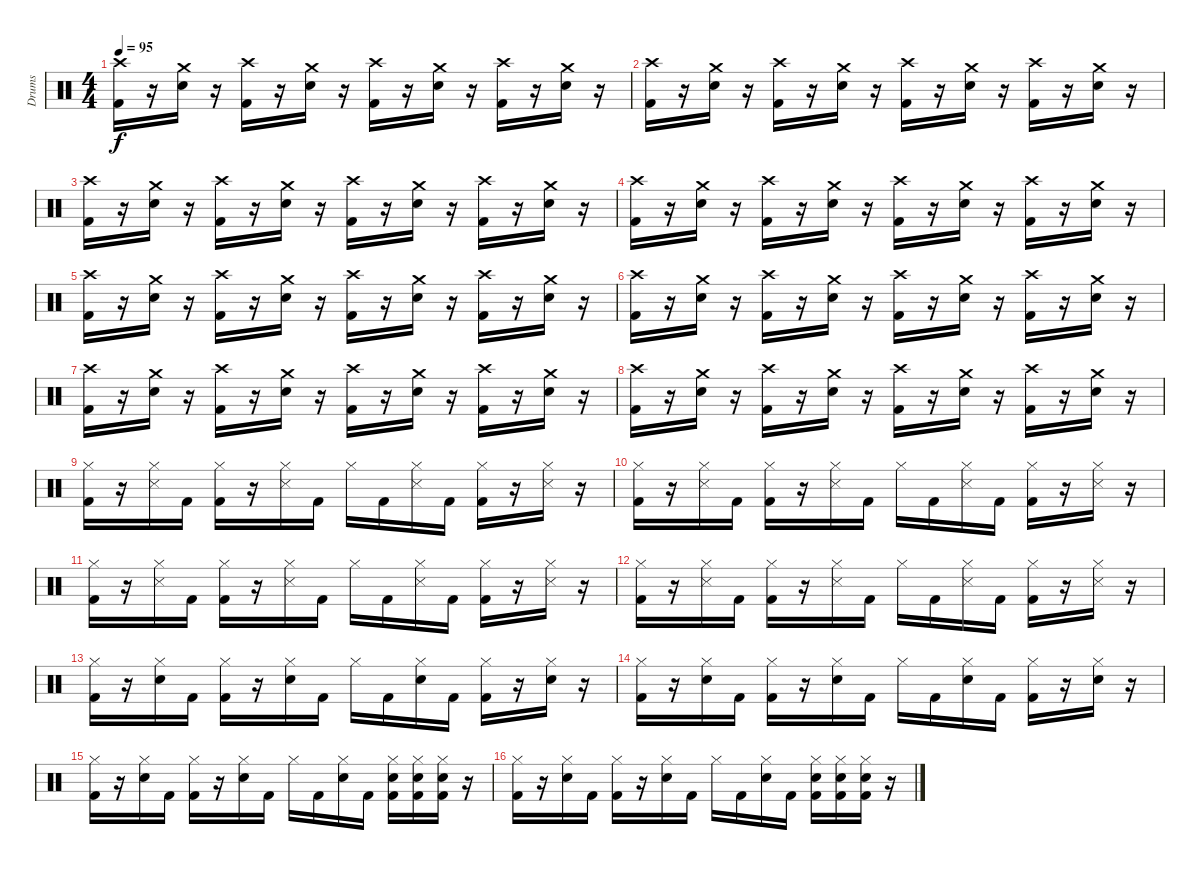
\track ("Drums" "Drums") {instrument percussion}
\staff {score}
\articulation defaults
\ts (4 4)
\tempo 95
\clef neutral
\ks c
("Crash high (hit)" "Kick (hit) 2").16{dy f} r.16 ("Crash medium (hit)" "Snare (hit) 2").16 r.16 ("Crash high (hit)" "Kick (hit) 2").16 r.16 ("Crash medium (hit)" "Snare (hit) 2").16 r.16 ("Crash high (hit)" "Kick (hit) 2").16 r.16 ("Crash medium (hit)" "Snare (hit) 2").16 r.16 ("Crash high (hit)" "Kick (hit) 2").16 r.16 ("Crash medium (hit)" "Snare (hit) 2").16 r.16 |
("Crash high (hit)" "Kick (hit) 2").16 r.16 ("Crash medium (hit)" "Snare (hit) 2").16 r.16 ("Crash high (hit)" "Kick (hit) 2").16 r.16 ("Crash medium (hit)" "Snare (hit) 2").16 r.16 ("Crash high (hit)" "Kick (hit) 2").16 r.16 ("Crash medium (hit)" "Snare (hit) 2").16 r.16 ("Crash high (hit)" "Kick (hit) 2").16 r.16 ("Crash medium (hit)" "Snare (hit) 2").16 r.16 |
("Crash high (hit)" "Kick (hit) 2").16 r.16 ("Crash medium (hit)" "Snare (hit) 2").16 r.16 ("Crash high (hit)" "Kick (hit) 2").16 r.16 ("Crash medium (hit)" "Snare (hit) 2").16 r.16 ("Crash high (hit)" "Kick (hit) 2").16 r.16 ("Crash medium (hit)" "Snare (hit) 2").16 r.16 ("Crash high (hit)" "Kick (hit) 2").16 r.16 ("Crash medium (hit)" "Snare (hit) 2").16 r.16 |
("Crash high (hit)" "Kick (hit) 2").16 r.16 ("Crash medium (hit)" "Snare (hit) 2").16 r.16 ("Crash high (hit)" "Kick (hit) 2").16 r.16 ("Crash medium (hit)" "Snare (hit) 2").16 r.16 ("Crash high (hit)" "Kick (hit) 2").16 r.16 ("Crash medium (hit)" "Snare (hit) 2").16 r.16 ("Crash high (hit)" "Kick (hit) 2").16 r.16 ("Crash medium (hit)" "Snare (hit) 2").16 r.16 |
("Crash high (hit)" "Kick (hit) 2").16 r.16 ("Crash medium (hit)" "Snare (hit) 2").16 r.16 ("Crash high (hit)" "Kick (hit) 2").16 r.16 ("Crash medium (hit)" "Snare (hit) 2").16 r.16 ("Crash high (hit)" "Kick (hit) 2").16 r.16 ("Crash medium (hit)" "Snare (hit) 2").16 r.16 ("Crash high (hit)" "Kick (hit) 2").16 r.16 ("Crash medium (hit)" "Snare (hit) 2").16 r.16 |
("Crash high (hit)" "Kick (hit) 2").16 r.16 ("Crash medium (hit)" "Snare (hit) 2").16 r.16 ("Crash high (hit)" "Kick (hit) 2").16 r.16 ("Crash medium (hit)" "Snare (hit) 2").16 r.16 ("Crash high (hit)" "Kick (hit) 2").16 r.16 ("Crash medium (hit)" "Snare (hit) 2").16 r.16 ("Crash high (hit)" "Kick (hit) 2").16 r.16 ("Crash medium (hit)" "Snare (hit) 2").16 r.16 |
("Crash high (hit)" "Kick (hit) 2").16 r.16 ("Crash medium (hit)" "Snare (hit) 2").16 r.16 ("Crash high (hit)" "Kick (hit) 2").16 r.16 ("Crash medium (hit)" "Snare (hit) 2").16 r.16 ("Crash high (hit)" "Kick (hit) 2").16 r.16 ("Crash medium (hit)" "Snare (hit) 2").16 r.16 ("Crash high (hit)" "Kick (hit) 2").16 r.16 ("Crash medium (hit)" "Snare (hit) 2").16 r.16 |
("Crash high (hit)" "Kick (hit) 2").16 r.16 ("Crash medium (hit)" "Snare (hit) 2").16 r.16 ("Crash high (hit)" "Kick (hit) 2").16 r.16 ("Crash medium (hit)" "Snare (hit) 2").16 r.16 ("Crash high (hit)" "Kick (hit) 2").16 r.16 ("Crash medium (hit)" "Snare (hit) 2").16 r.16 ("Crash high (hit)" "Kick (hit) 2").16 r.16 ("Crash medium (hit)" "Snare (hit) 2").16 r.16 |
("Hi-Hat (closed)" "Kick (hit) 2").16 r.16 ("Hi-Hat (closed)" "Snare (side stick) 3").16 "Kick (hit) 2".16 ("Hi-Hat (closed)" "Kick (hit) 2").16 r.16 ("Hi-Hat (closed)" "Snare (side stick) 3").16 "Kick (hit) 2".16 "Hi-Hat (closed)".16 "Kick (hit) 2".16 ("Hi-Hat (closed)" "Snare (side stick) 3").16 "Kick (hit) 2".16 ("Hi-Hat (closed)" "Kick (hit) 2").16 r.16 ("Hi-Hat (closed)" "Snare (side stick) 3").16 r.16 |
("Hi-Hat (closed)" "Kick (hit) 2").16 r.16 ("Hi-Hat (closed)" "Snare (side stick) 3").16 "Kick (hit) 2".16 ("Hi-Hat (closed)" "Kick (hit) 2").16 r.16 ("Hi-Hat (closed)" "Snare (side stick) 3").16 "Kick (hit) 2".16 "Hi-Hat (closed)".16 "Kick (hit) 2".16 ("Hi-Hat (closed)" "Snare (side stick) 3").16 "Kick (hit) 2".16 ("Hi-Hat (closed)" "Kick (hit) 2").16 r.16 ("Hi-Hat (closed)" "Snare (side stick) 3").16 r.16 |
("Hi-Hat (closed)" "Kick (hit) 2").16 r.16 ("Hi-Hat (closed)" "Snare (side stick) 3").16 "Kick (hit) 2".16 ("Hi-Hat (closed)" "Kick (hit) 2").16 r.16 ("Hi-Hat (closed)" "Snare (side stick) 3").16 "Kick (hit) 2".16 "Hi-Hat (closed)".16 "Kick (hit) 2".16 ("Hi-Hat (closed)" "Snare (side stick) 3").16 "Kick (hit) 2".16 ("Hi-Hat (closed)" "Kick (hit) 2").16 r.16 ("Hi-Hat (closed)" "Snare (side stick) 3").16 r.16 |
("Hi-Hat (closed)" "Kick (hit) 2").16 r.16 ("Hi-Hat (closed)" "Snare (side stick) 3").16 "Kick (hit) 2".16 ("Hi-Hat (closed)" "Kick (hit) 2").16 r.16 ("Hi-Hat (closed)" "Snare (side stick) 3").16 "Kick (hit) 2".16 "Hi-Hat (closed)".16 "Kick (hit) 2".16 ("Hi-Hat (closed)" "Snare (side stick) 3").16 "Kick (hit) 2".16 ("Hi-Hat (closed)" "Kick (hit) 2").16 r.16 ("Hi-Hat (closed)" "Snare (side stick) 3").16 r.16 |
("Hi-Hat (closed)" "Kick (hit) 2").16 r.16 ("Hi-Hat (closed)" "Snare (hit) 2").16 "Kick (hit) 2".16 ("Hi-Hat (closed)" "Kick (hit) 2").16 r.16 ("Hi-Hat (closed)" "Snare (hit) 2").16 "Kick (hit) 2".16 "Hi-Hat (closed)".16 "Kick (hit) 2".16 ("Hi-Hat (closed)" "Snare (hit) 2").16 "Kick (hit) 2".16 ("Hi-Hat (closed)" "Kick (hit) 2").16 r.16 ("Hi-Hat (closed)" "Snare (hit) 2").16 r.16 |
("Hi-Hat (closed)" "Kick (hit) 2").16 r.16 ("Hi-Hat (closed)" "Snare (hit) 2").16 "Kick (hit) 2".16 ("Hi-Hat (closed)" "Kick (hit) 2").16 r.16 ("Hi-Hat (closed)" "Snare (hit) 2").16 "Kick (hit) 2".16 "Hi-Hat (closed)".16 "Kick (hit) 2".16 ("Hi-Hat (closed)" "Snare (hit) 2").16 "Kick (hit) 2".16 ("Hi-Hat (closed)" "Kick (hit) 2").16 r.16 ("Hi-Hat (closed)" "Snare (hit) 2").16 r.16 |
("Hi-Hat (closed)" "Kick (hit) 2").16 r.16 ("Hi-Hat (closed)" "Snare (hit) 2").16 "Kick (hit) 2".16 ("Hi-Hat (closed)" "Kick (hit) 2").16 r.16 ("Hi-Hat (closed)" "Snare (hit) 2").16 "Kick (hit) 2".16 "Hi-Hat (closed)".16 "Kick (hit) 2".16 ("Hi-Hat (closed)" "Snare (hit) 2").16 "Kick (hit) 2".16 ("Hi-Hat (closed)" "Snare (hit) 2" "Kick (hit) 2").16 ("Hi-Hat (closed)" "Snare (hit) 2" "Kick (hit) 2").16 ("Hi-Hat (closed)" "Snare (hit) 2" "Kick (hit) 2").16 r.16 |
("Hi-Hat (closed)" "Kick (hit) 2").16 r.16 ("Hi-Hat (closed)" "Snare (hit) 2").16 "Kick (hit) 2".16 ("Hi-Hat (closed)" "Kick (hit) 2").16 r.16 ("Hi-Hat (closed)" "Snare (hit) 2").16 "Kick (hit) 2".16 "Hi-Hat (closed)".16 "Kick (hit) 2".16 ("Hi-Hat (closed)" "Snare (hit) 2").16 "Kick (hit) 2".16 ("Hi-Hat (closed)" "Snare (hit) 2" "Kick (hit) 2").16 ("Hi-Hat (closed)" "Snare (hit) 2" "Kick (hit) 2").16 ("Hi-Hat (closed)" "Snare (hit) 2" "Kick (hit) 2").16 r.16
